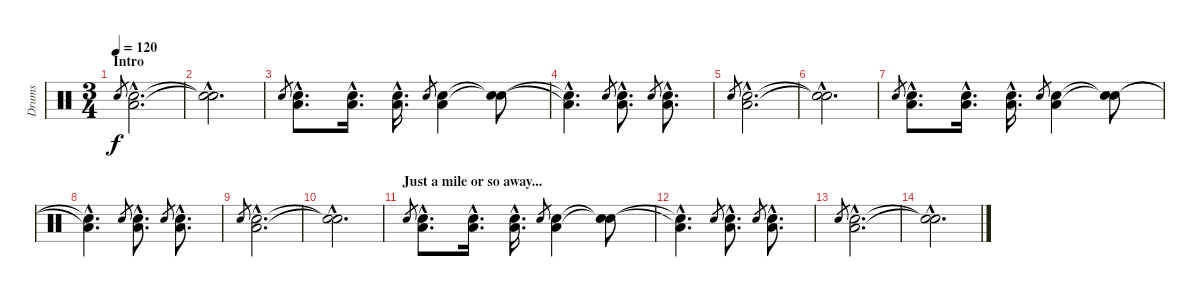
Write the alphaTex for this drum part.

\track ("Drums" "Drums") {instrument percussion}
\staff {score}
\articulation defaults
\ts (3 4)
\section ("" "Intro")
\tempo 120
\tempo 147
\tempo 120
\clef neutral
\ks c "Snare (hit) 2".8{gr dy f}
("Snare (hit) 2"{hac} "Low Floor Tom (hit)"{hac}).2{d} |
("Snare (hit)"{hac t} "Snare (hit)"{hac t}).2{d} |
"Snare (hit) 2".8{gr} ("Snare (hit) 2"{hac} "Low Floor Tom (hit)"{hac}).8{d volume 6} ("Snare (hit) 2"{hac} "Low Floor Tom (hit)"{hac}).16{d} ("Snare (hit) 2"{hac} "Low Floor Tom (hit)"{hac}).16{d} "Snare (hit) 2".8{gr} ("Snare (hit) 2" "Low Floor Tom (hit)").4 ("Snare (hit)"{t} "Snare (hit)"{t}).8 |
("Snare (hit) 2"{hac t} "Low Floor Tom (hit)"{hac t}).4{d} "Snare (hit) 2".8{gr} ("Snare (hit) 2"{hac} "Low Floor Tom (hit)"{hac}).8{d} "Snare (hit) 2".8{gr} ("Snare (hit) 2"{hac} "Low Floor Tom (hit)"{hac}).8{d} |
"Snare (hit) 2".8{gr} ("Snare (hit) 2"{hac} "Low Floor Tom (hit)"{hac}).2{d} |
("Snare (hit)"{hac t} "Snare (hit)"{hac t}).2{d} |
"Snare (hit) 2".8{gr} ("Snare (hit) 2"{hac} "Low Floor Tom (hit)"{hac}).8{d volume 4} ("Snare (hit) 2"{hac} "Low Floor Tom (hit)"{hac}).16{d} ("Snare (hit) 2"{hac} "Low Floor Tom (hit)"{hac}).16{d} "Snare (hit) 2".8{gr} ("Snare (hit) 2" "Low Floor Tom (hit)").4 ("Snare (hit)"{t} "Snare (hit)"{t}).8 |
("Snare (hit) 2"{hac t} "Low Floor Tom (hit)"{hac t}).4{d} "Snare (hit) 2".8{gr} ("Snare (hit) 2"{hac} "Low Floor Tom (hit)"{hac}).8{d} "Snare (hit) 2".8{gr} ("Snare (hit) 2"{hac} "Low Floor Tom (hit)"{hac}).8{d} |
"Snare (hit) 2".8{gr} ("Snare (hit) 2"{hac} "Low Floor Tom (hit)"{hac}).2{d} |
("Snare (hit)"{hac t} "Snare (hit)"{hac t}).2{d} |
\section ("" "Just a mile or so away... ")
"Snare (hit) 2".8{gr} ("Snare (hit) 2"{hac} "Low Floor Tom (hit)"{hac}).8{d volume 0} ("Snare (hit) 2"{hac} "Low Floor Tom (hit)"{hac}).16{d} ("Snare (hit) 2"{hac} "Low Floor Tom (hit)"{hac}).16{d} "Snare (hit) 2".8{gr} ("Snare (hit) 2" "Low Floor Tom (hit)").4 ("Snare (hit)"{t} "Snare (hit)"{t}).8 |
("Snare (hit) 2"{hac t} "Low Floor Tom (hit)"{hac t}).4{d} "Snare (hit) 2".8{gr} ("Snare (hit) 2"{hac} "Low Floor Tom (hit)"{hac}).8{d} "Snare (hit) 2".8{gr} ("Snare (hit) 2"{hac} "Low Floor Tom (hit)"{hac}).8{d} |
"Snare (hit) 2".8{gr} ("Snare (hit) 2"{hac} "Low Floor Tom (hit)"{hac}).2{d} |
("Snare (hit)"{hac t} "Snare (hit)"{hac t}).2{d}
